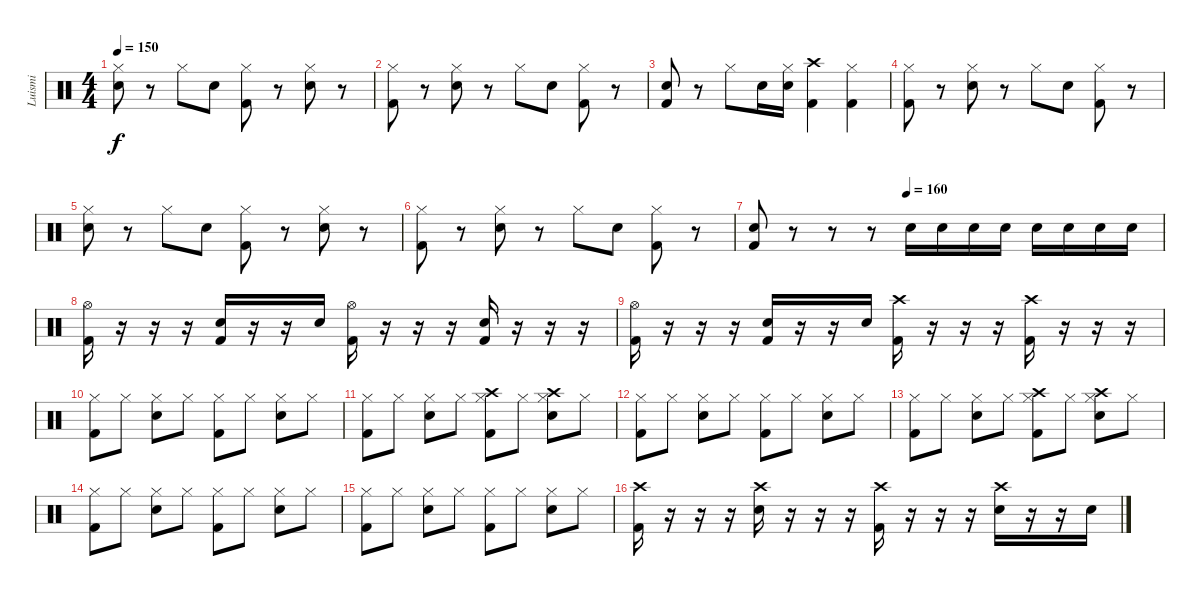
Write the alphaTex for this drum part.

\track ("Luismi" "Luismi") {instrument percussion}
\staff {score}
\articulation defaults
\ts (4 4)
\tempo 150
\clef neutral
\ks c
("Hi-Hat (closed)" "Electric Snare (hit)").8{dy f} r.8 "Hi-Hat (closed)".8 "Electric Snare (hit)".8 ("Hi-Hat (closed)" "Kick (hit) 2").8 r.8 ("Hi-Hat (closed)" "Electric Snare (hit)").8 r.8 |
("Hi-Hat (closed)" "Kick (hit) 2").8 r.8 ("Hi-Hat (closed)" "Electric Snare (hit)").8 r.8 "Hi-Hat (closed)".8 "Electric Snare (hit)".8 ("Hi-Hat (closed)" "Kick (hit) 2").8 r.8 |
("Electric Snare (hit)" "Kick (hit) 2").8 r.8 "Hi-Hat (closed)".8 "Electric Snare (hit)".16 ("Hi-Hat (closed)" "Electric Snare (hit)").16 ("Crash high (hit)" "Kick (hit) 2").4 ("Hi-Hat (closed)" "Kick (hit) 2").4 |
("Hi-Hat (closed)" "Kick (hit) 2").8 r.8 ("Hi-Hat (closed)" "Electric Snare (hit)").8 r.8 "Hi-Hat (closed)".8 "Electric Snare (hit)".8 ("Hi-Hat (closed)" "Kick (hit) 2").8 r.8 |
("Hi-Hat (closed)" "Electric Snare (hit)").8 r.8 "Hi-Hat (closed)".8 "Electric Snare (hit)".8 ("Hi-Hat (closed)" "Kick (hit) 2").8 r.8 ("Hi-Hat (closed)" "Electric Snare (hit)").8 r.8 |
("Hi-Hat (closed)" "Kick (hit) 2").8 r.8 ("Hi-Hat (closed)" "Electric Snare (hit)").8 r.8 "Hi-Hat (closed)".8 "Electric Snare (hit)".8 ("Hi-Hat (closed)" "Kick (hit) 2").8 r.8 |
\tempo (160 0.375)
("Electric Snare (hit)" "Kick (hit) 2").8 r.8 r.8 r.8 "Electric Snare (hit)".16 "Electric Snare (hit)".16 "Electric Snare (hit)".16 "Electric Snare (hit)".16 "Electric Snare (hit)".16 "Electric Snare (hit)".16 "Electric Snare (hit)".16 "Electric Snare (hit)".16 |
("Kick (hit) 2" "Hi-Hat (open)").16 r.16 r.16 r.16 ("Kick (hit) 2" "Electric Snare (hit)").16 r.16 r.16 "Electric Snare (hit)".16 ("Kick (hit) 2" "Hi-Hat (open)").16 r.16 r.16 r.16 ("Kick (hit) 2" "Electric Snare (hit)").16 r.16 r.16 r.16 |
("Kick (hit) 2" "Hi-Hat (open)").16 r.16 r.16 r.16 ("Kick (hit) 2" "Electric Snare (hit)").16 r.16 r.16 "Electric Snare (hit)".16 ("Kick (hit) 2" "Crash high (hit)").16 r.16 r.16 r.16 ("Kick (hit) 2" "Crash high (hit)").16 r.16 r.16 r.16 |
("Hi-Hat (closed)" "Kick (hit) 2").8 "Hi-Hat (closed)".8 ("Hi-Hat (closed)" "Electric Snare (hit)").8 "Hi-Hat (closed)".8 ("Hi-Hat (closed)" "Kick (hit) 2").8 "Hi-Hat (closed)".8 ("Hi-Hat (closed)" "Electric Snare (hit)").8 "Hi-Hat (closed)".8 |
("Hi-Hat (closed)" "Kick (hit) 2").8 "Hi-Hat (closed)".8 ("Hi-Hat (closed)" "Electric Snare (hit)").8 "Hi-Hat (closed)".8 ("Crash high (hit)" "Hi-Hat (closed)" "Kick (hit) 2").8 "Hi-Hat (closed)".8 ("Crash high (hit)" "Hi-Hat (closed)" "Electric Snare (hit)").8 "Hi-Hat (closed)".8 |
("Hi-Hat (closed)" "Kick (hit) 2").8 "Hi-Hat (closed)".8 ("Hi-Hat (closed)" "Electric Snare (hit)").8 "Hi-Hat (closed)".8 ("Hi-Hat (closed)" "Kick (hit) 2").8 "Hi-Hat (closed)".8 ("Hi-Hat (closed)" "Electric Snare (hit)").8 "Hi-Hat (closed)".8 |
("Hi-Hat (closed)" "Kick (hit) 2").8 "Hi-Hat (closed)".8 ("Hi-Hat (closed)" "Electric Snare (hit)").8 "Hi-Hat (closed)".8 ("Crash high (hit)" "Hi-Hat (closed)" "Kick (hit) 2").8 "Hi-Hat (closed)".8 ("Crash high (hit)" "Hi-Hat (closed)" "Electric Snare (hit)").8 "Hi-Hat (closed)".8 |
("Hi-Hat (closed)" "Kick (hit) 2").8 "Hi-Hat (closed)".8 ("Hi-Hat (closed)" "Electric Snare (hit)").8 "Hi-Hat (closed)".8 ("Hi-Hat (closed)" "Kick (hit) 2").8 "Hi-Hat (closed)".8 ("Hi-Hat (closed)" "Electric Snare (hit)").8 "Hi-Hat (closed)".8 |
("Hi-Hat (closed)" "Kick (hit) 2").8 "Hi-Hat (closed)".8 ("Hi-Hat (closed)" "Electric Snare (hit)").8 "Hi-Hat (closed)".8 ("Hi-Hat (closed)" "Kick (hit) 2").8 "Hi-Hat (closed)".8 ("Hi-Hat (closed)" "Electric Snare (hit)").8 "Hi-Hat (closed)".8 |
("Crash high (hit)" "Kick (hit) 2").16 r.16 r.16 r.16 ("Crash high (hit)" "Electric Snare (hit)").16 r.16 r.16 r.16 ("Crash high (hit)" "Kick (hit) 2").16 r.16 r.16 r.16 ("Crash high (hit)" "Electric Snare (hit)").16 r.16 r.16 "Electric Snare (hit)".16
